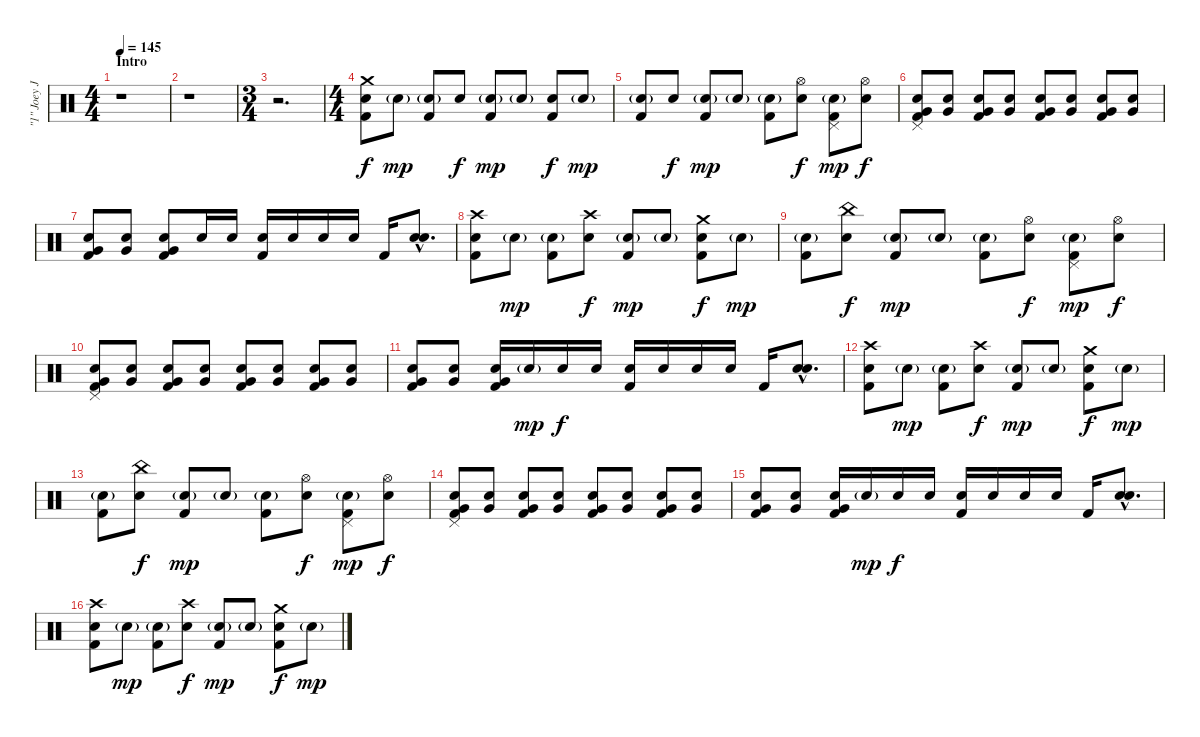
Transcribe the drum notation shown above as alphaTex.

\track ("\"1\" Joey Jordison (Drums)" "\"1\" Joey J") {instrument percussion}
\staff {score}
\articulation defaults
\ts (4 4)
\section ("" "Intro")
\tempo 145
\clef neutral
\ks c
r.1{dy f} |
r.1 |
\ts (3 4)
r.2{d} |
\ts (4 4)
("Crash medium (hit)" "Electric Snare (hit)" "Kick (hit) 2").8 "Electric Snare (hit)"{g}.8{dy mp} ("Electric Snare (hit)"{g} "Kick (hit) 2").8 "Electric Snare (hit)".8{dy f} ("Electric Snare (hit)"{g} "Kick (hit) 2").8{dy mp} "Electric Snare (hit)"{g}.8 ("Electric Snare (hit)" "Kick (hit) 2").8{dy f} "Electric Snare (hit)"{g}.8{dy mp} |
("Electric Snare (hit)"{g} "Kick (hit) 2").8 "Electric Snare (hit)".8{dy f} ("Electric Snare (hit)"{g} "Kick (hit) 2").8{dy mp} "Electric Snare (hit)"{g}.8 ("Electric Snare (hit)"{g} "Kick (hit) 2").8 ("Hi-Hat (open)" "Electric Snare (hit)").8{dy f} ("Pedal Hi-Hat (hit)" "Electric Snare (hit)"{g} "Kick (hit) 2").8{dy mp} ("Hi-Hat (open)" "Electric Snare (hit)").8{dy f} |
("Pedal Hi-Hat (hit)" "Electric Snare (hit)" "Very Low Tom (hit)" "Kick (hit) 2").8 ("Electric Snare (hit)" "Very Low Tom (hit)").8 ("Electric Snare (hit)" "Very Low Tom (hit)" "Kick (hit) 2").8 ("Electric Snare (hit)" "Very Low Tom (hit)").8 ("Electric Snare (hit)" "Very Low Tom (hit)" "Kick (hit) 2").8 ("Electric Snare (hit)" "Very Low Tom (hit)").8 ("Electric Snare (hit)" "Very Low Tom (hit)" "Kick (hit) 2").8 ("Electric Snare (hit)" "Very Low Tom (hit)").8 |
("Electric Snare (hit)" "Very Low Tom (hit)" "Kick (hit) 2").8 ("Electric Snare (hit)" "Very Low Tom (hit)").8 ("Electric Snare (hit)" "Very Low Tom (hit)" "Kick (hit) 2").8 "Electric Snare (hit)".16 "Electric Snare (hit)".16 ("Electric Snare (hit)" "Kick (hit) 2").16 "Electric Snare (hit)".16 "Electric Snare (hit)".16 "Electric Snare (hit)".16 "Kick (hit) 2".16 ("Electric Snare (hit)"{hac} "Electric Snare (hit)"{hac}).8{d bd 120} |
("Crash high (hit)" "Electric Snare (hit)" "Kick (hit) 2").8 "Electric Snare (hit)"{g}.8{dy mp} ("Electric Snare (hit)"{g} "Kick (hit) 2").8 ("Crash high (hit)" "Electric Snare (hit)").8{dy f} ("Electric Snare (hit)"{g} "Kick (hit) 2").8{dy mp} "Electric Snare (hit)"{g}.8 ("Crash medium (hit)" "Electric Snare (hit)" "Kick (hit) 2").8{dy f} "Electric Snare (hit)"{g}.8{dy mp} |
("Electric Snare (hit)"{g} "Kick (hit) 2").8 ("China (hit)" "Electric Snare (hit)").8{dy f} ("Electric Snare (hit)"{g} "Kick (hit) 2").8{dy mp} "Electric Snare (hit)"{g}.8 ("Electric Snare (hit)"{g} "Kick (hit) 2").8 ("Hi-Hat (open)" "Electric Snare (hit)").8{dy f} ("Pedal Hi-Hat (hit)" "Electric Snare (hit)"{g} "Kick (hit) 2").8{dy mp} ("Hi-Hat (open)" "Electric Snare (hit)").8{dy f} |
("Pedal Hi-Hat (hit)" "Electric Snare (hit)" "Very Low Tom (hit)" "Kick (hit) 2").8 ("Electric Snare (hit)" "Very Low Tom (hit)").8 ("Electric Snare (hit)" "Very Low Tom (hit)" "Kick (hit) 2").8 ("Electric Snare (hit)" "Very Low Tom (hit)").8 ("Electric Snare (hit)" "Very Low Tom (hit)" "Kick (hit) 2").8 ("Electric Snare (hit)" "Very Low Tom (hit)").8 ("Electric Snare (hit)" "Very Low Tom (hit)" "Kick (hit) 2").8 ("Electric Snare (hit)" "Very Low Tom (hit)").8 |
("Electric Snare (hit)" "Very Low Tom (hit)" "Kick (hit) 2").8 ("Electric Snare (hit)" "Very Low Tom (hit)").8 ("Electric Snare (hit)" "Very Low Tom (hit)" "Kick (hit) 2").16 "Electric Snare (hit)"{g}.16{dy mp} "Electric Snare (hit)".16{dy f} "Electric Snare (hit)".16 ("Electric Snare (hit)" "Kick (hit) 2").16 "Electric Snare (hit)".16 "Electric Snare (hit)".16 "Electric Snare (hit)".16 "Kick (hit) 2".16 ("Electric Snare (hit)"{hac} "Electric Snare (hit)"{hac}).8{d bd 120} |
("Crash high (hit)" "Electric Snare (hit)" "Kick (hit) 2").8 "Electric Snare (hit)"{g}.8{dy mp} ("Electric Snare (hit)"{g} "Kick (hit) 2").8 ("Crash high (hit)" "Electric Snare (hit)").8{dy f} ("Electric Snare (hit)"{g} "Kick (hit) 2").8{dy mp} "Electric Snare (hit)"{g}.8 ("Crash medium (hit)" "Electric Snare (hit)" "Kick (hit) 2").8{dy f} "Electric Snare (hit)"{g}.8{dy mp} |
("Electric Snare (hit)"{g} "Kick (hit) 2").8 ("China (hit)" "Electric Snare (hit)").8{dy f} ("Electric Snare (hit)"{g} "Kick (hit) 2").8{dy mp} "Electric Snare (hit)"{g}.8 ("Electric Snare (hit)"{g} "Kick (hit) 2").8 ("Hi-Hat (open)" "Electric Snare (hit)").8{dy f} ("Pedal Hi-Hat (hit)" "Electric Snare (hit)"{g} "Kick (hit) 2").8{dy mp} ("Hi-Hat (open)" "Electric Snare (hit)").8{dy f} |
("Pedal Hi-Hat (hit)" "Electric Snare (hit)" "Very Low Tom (hit)" "Kick (hit) 2").8 ("Electric Snare (hit)" "Very Low Tom (hit)").8 ("Electric Snare (hit)" "Very Low Tom (hit)" "Kick (hit) 2").8 ("Electric Snare (hit)" "Very Low Tom (hit)").8 ("Electric Snare (hit)" "Very Low Tom (hit)" "Kick (hit) 2").8 ("Electric Snare (hit)" "Very Low Tom (hit)").8 ("Electric Snare (hit)" "Very Low Tom (hit)" "Kick (hit) 2").8 ("Electric Snare (hit)" "Very Low Tom (hit)").8 |
("Electric Snare (hit)" "Very Low Tom (hit)" "Kick (hit) 2").8 ("Electric Snare (hit)" "Very Low Tom (hit)").8 ("Electric Snare (hit)" "Very Low Tom (hit)" "Kick (hit) 2").16 "Electric Snare (hit)"{g}.16{dy mp} "Electric Snare (hit)".16{dy f} "Electric Snare (hit)".16 ("Electric Snare (hit)" "Kick (hit) 2").16 "Electric Snare (hit)".16 "Electric Snare (hit)".16 "Electric Snare (hit)".16 "Kick (hit) 2".16 ("Electric Snare (hit)"{hac} "Electric Snare (hit)"{hac}).8{d bd 120} |
("Crash high (hit)" "Electric Snare (hit)" "Kick (hit) 2").8 "Electric Snare (hit)"{g}.8{dy mp} ("Electric Snare (hit)"{g} "Kick (hit) 2").8 ("Crash high (hit)" "Electric Snare (hit)").8{dy f} ("Electric Snare (hit)"{g} "Kick (hit) 2").8{dy mp} "Electric Snare (hit)"{g}.8 ("Crash medium (hit)" "Electric Snare (hit)" "Kick (hit) 2").8{dy f} "Electric Snare (hit)"{g}.8{dy mp}
